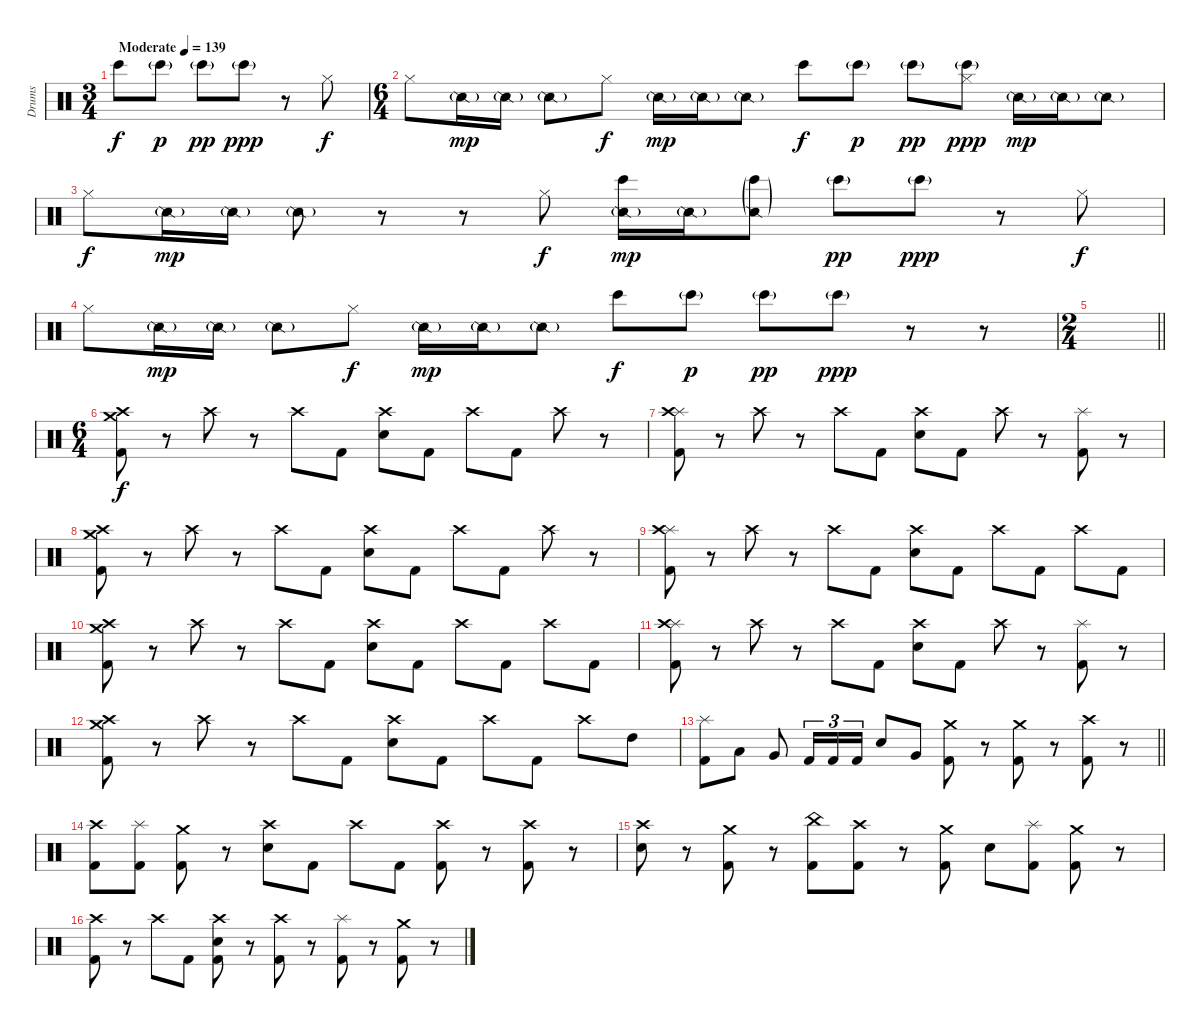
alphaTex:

\track ("Drums" "Drums") {instrument percussion}
\staff {score}
\articulation defaults
\ts (3 4)
\section ("" "")
\tempo (139 "Moderate")
\clef neutral
\ks c "Bongo High (hit)".8{dy f volume 3} "Bongo High (hit)"{g}.8{dy p} "Bongo High (hit)"{g}.8{dy pp} "Bongo High (hit)"{g}.8{dy ppp}
r.8 "Hi-Hat (closed)".8{dy f} |
\ts (6 4)
"Hi-Hat (closed)".8{volume 8} "Snare (side stick) 2"{g}.16{dy mp} "Snare (side stick) 2"{g}.16 "Snare (side stick) 2"{g}.8 "Hi-Hat (closed)".8{dy f} "Snare (side stick) 2"{g}.16{dy mp} "Snare (side stick) 2"{g}.16 "Snare (side stick) 2"{g}.8 "Bongo High (hit)".8{dy f} "Bongo High (hit)"{g}.8{dy p} "Bongo High (hit)"{g}.8{dy pp} ("Bongo High (hit)"{g} "Hi-Hat (closed)").8{dy ppp} "Snare (side stick) 2"{g}.16{dy mp} "Snare (side stick) 2"{g}.16 "Snare (side stick) 2"{g}.8 |
"Hi-Hat (closed)".8{dy f} "Snare (side stick) 2"{g}.16{dy mp} "Snare (side stick) 2"{g}.16 "Snare (side stick) 2"{g}.8 r.8 r.8 "Hi-Hat (closed)".8{dy f} ("Bongo High (hit)" "Snare (side stick) 2"{g}).16{dy mp} "Snare (side stick) 2"{g}.16 ("Bongo High (hit)"{g} "Snare (side stick) 2"{g}).8 "Bongo High (hit)"{g}.8{dy pp} "Bongo High (hit)"{g}.8{dy ppp} r.8 "Hi-Hat (closed)".8{dy f} |
"Hi-Hat (closed)".8 "Snare (side stick) 2"{g}.16{dy mp} "Snare (side stick) 2"{g}.16 "Snare (side stick) 2"{g}.8 "Hi-Hat (closed)".8{dy f} "Snare (side stick) 2"{g}.16{dy mp} "Snare (side stick) 2"{g}.16 "Snare (side stick) 2"{g}.8 "Bongo High (hit)".8{dy f} "Bongo High (hit)"{g}.8{dy p} "Bongo High (hit)"{g}.8{dy pp} "Bongo High (hit)"{g}.8{dy ppp} r.8 r.8 |
\ts (2 4)
\barLineRight lightlight
|
\ts (6 4)
\section ("" "")
("Crash medium (hit)" "Crash high (hit)" "Kick (hit) 2").8{dy f volume 13} r.8 "Crash high (hit)".8 r.8 "Crash high (hit)".8 "Kick (hit) 2".8 ("Crash high (hit)" "Electric Snare (hit)").8 "Kick (hit) 2".8 "Crash high (hit)".8 "Kick (hit) 2".8 "Crash high (hit)".8 r.8 |
("Splash (hit)" "Crash high (hit)" "Kick (hit) 2").8 r.8 "Crash high (hit)".8 r.8 "Crash high (hit)".8 "Kick (hit) 2".8 ("Crash high (hit)" "Electric Snare (hit)").8 "Kick (hit) 2".8 "Crash high (hit)".8 r.8 ("Splash (hit)" "Kick (hit) 2").8 r.8 |
("Crash medium (hit)" "Crash high (hit)" "Kick (hit) 2").8 r.8 "Crash high (hit)".8 r.8 "Crash high (hit)".8 "Kick (hit) 2".8 ("Crash high (hit)" "Electric Snare (hit)").8 "Kick (hit) 2".8 "Crash high (hit)".8 "Kick (hit) 2".8 "Crash high (hit)".8 r.8 |
("Splash (hit)" "Crash high (hit)" "Kick (hit) 2").8 r.8 "Crash high (hit)".8 r.8 "Crash high (hit)".8 "Kick (hit) 2".8 ("Crash high (hit)" "Electric Snare (hit)").8 "Kick (hit) 2".8 "Crash high (hit)".8 "Kick (hit) 2".8 "Crash high (hit)".8 "Kick (hit) 2".8 |
("Crash medium (hit)" "Crash high (hit)" "Kick (hit) 2").8{volume 13} r.8 "Crash high (hit)".8 r.8 "Crash high (hit)".8 "Kick (hit) 2".8 ("Crash high (hit)" "Electric Snare (hit)").8 "Kick (hit) 2".8 "Crash high (hit)".8 "Kick (hit) 2".8 "Crash high (hit)".8 "Kick (hit) 2".8 |
("Splash (hit)" "Crash high (hit)" "Kick (hit) 2").8 r.8 "Crash high (hit)".8 r.8 "Crash high (hit)".8 "Kick (hit) 2".8 ("Crash high (hit)" "Electric Snare (hit)").8 "Kick (hit) 2".8 "Crash high (hit)".8 r.8 ("Splash (hit)" "Kick (hit) 2").8 r.8 |
("Crash medium (hit)" "Crash high (hit)" "Kick (hit) 2").8 r.8 "Crash high (hit)".8 r.8 "Crash high (hit)".8 "Kick (hit) 2".8 ("Crash high (hit)" "Electric Snare (hit)").8 "Kick (hit) 2".8 "Crash high (hit)".8 "Kick (hit) 2".8 "Crash high (hit)".8 "High Tom (hit)".8 |
\barLineRight lightlight
("Splash (hit)" "Kick (hit) 2").8 "Low Tom (hit)".8 "Very Low Tom (hit)".8 "Kick (hit) 2".16{tu (3 2)} "Kick (hit) 2".16{tu (3 2)} "Kick (hit) 2".16{tu (3 2)} "Electric Snare (hit)".8 "Very Low Tom (hit)".8 ("Crash medium (hit)" "Kick (hit) 2").8 r.8 ("Crash medium (hit)" "Kick (hit) 2").8 r.8 ("Crash high (hit)" "Kick (hit) 2").8 r.8 |
\section ("" "")
("Crash high (hit)" "Kick (hit) 2").8 ("Splash (hit)" "Kick (hit) 2").8 ("Crash medium (hit)" "Kick (hit) 2").8 r.8 ("Crash high (hit)" "Electric Snare (hit)").8 "Kick (hit) 2".8 "Crash high (hit)".8 "Kick (hit) 2".8 ("Crash high (hit)" "Kick (hit) 2").8 r.8 ("Crash high (hit)" "Kick (hit) 2").8 r.8 |
("Crash high (hit)" "Electric Snare (hit)").8 r.8 ("Crash medium (hit)" "Kick (hit) 2").8 r.8 ("China (hit)" "Kick (hit) 2").8 ("Crash high (hit)" "Kick (hit) 2").8 r.8 ("Crash medium (hit)" "Kick (hit) 2").8 "Electric Snare (hit)".8 ("Splash (hit)" "Kick (hit) 2").8 ("Crash medium (hit)" "Kick (hit) 2").8 r.8 |
("Crash high (hit)" "Kick (hit) 2").8 r.8 "Crash high (hit)".8 "Kick (hit) 2".8 ("Crash high (hit)" "Electric Snare (hit)" "Kick (hit) 2").8 r.8 ("Crash high (hit)" "Kick (hit) 2").8 r.8 ("Splash (hit)" "Kick (hit) 2").8 r.8 ("Crash medium (hit)" "Kick (hit) 2").8 r.8
